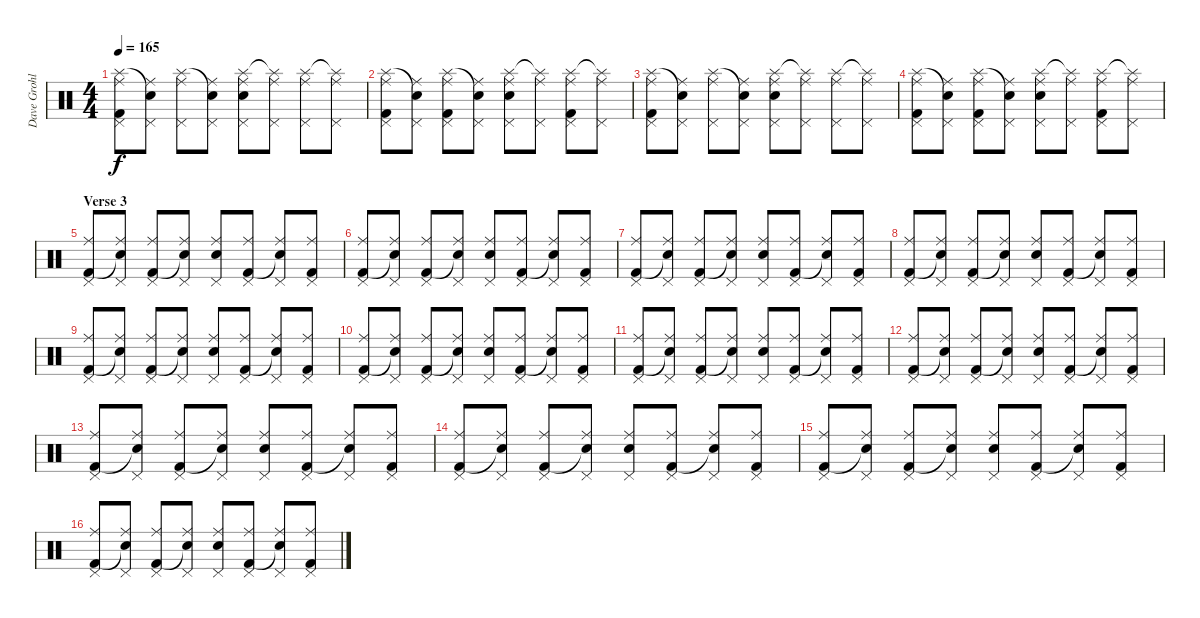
\track ("Dave Grohl" "Dave Grohl") {instrument percussion}
\staff {score}
\articulation defaults
\ts (4 4)
\tempo 165
\clef neutral
\ks c
("Splash (hit)" "Pedal Hi-Hat (hit)" "Ride (middle)" "Kick (hit) 2").8{dy f} ("Snare (hit)"{t} "Pedal Hi-Hat (hit)" "Ride (middle)").8 ("Splash (hit)" "Pedal Hi-Hat (hit)" "Ride (middle)").8 ("Snare (hit)"{t} "Pedal Hi-Hat (hit)" "Ride (middle)").8 ("Splash (hit)" "Pedal Hi-Hat (hit)" "Ride (middle)" "Snare (hit) 2").8 ("Splash (hit)"{t} "Pedal Hi-Hat (hit)" "Ride (middle)").8 ("Splash (hit)" "Pedal Hi-Hat (hit)" "Ride (middle)").8 ("Splash (hit)"{t} "Pedal Hi-Hat (hit)" "Ride (middle)").8 |
("Splash (hit)" "Pedal Hi-Hat (hit)" "Ride (middle)" "Kick (hit) 2").8 ("Snare (hit)"{t} "Pedal Hi-Hat (hit)" "Ride (middle)").8 ("Splash (hit)" "Pedal Hi-Hat (hit)" "Ride (middle)" "Kick (hit) 2").8 ("Snare (hit)"{t} "Pedal Hi-Hat (hit)" "Ride (middle)").8 ("Splash (hit)" "Pedal Hi-Hat (hit)" "Ride (middle)" "Snare (hit) 2").8 ("Splash (hit)"{t} "Pedal Hi-Hat (hit)" "Ride (middle)").8 ("Splash (hit)" "Pedal Hi-Hat (hit)" "Ride (middle)" "Kick (hit) 2").8 ("Splash (hit)"{t} "Pedal Hi-Hat (hit)" "Ride (middle)").8 |
("Splash (hit)" "Pedal Hi-Hat (hit)" "Ride (middle)" "Kick (hit) 2").8 ("Snare (hit)"{t} "Pedal Hi-Hat (hit)" "Ride (middle)").8 ("Splash (hit)" "Pedal Hi-Hat (hit)" "Ride (middle)").8 ("Snare (hit)"{t} "Pedal Hi-Hat (hit)" "Ride (middle)").8 ("Splash (hit)" "Pedal Hi-Hat (hit)" "Ride (middle)" "Snare (hit) 2").8 ("Splash (hit)"{t} "Pedal Hi-Hat (hit)" "Ride (middle)").8 ("Splash (hit)" "Pedal Hi-Hat (hit)" "Ride (middle)").8 ("Splash (hit)"{t} "Pedal Hi-Hat (hit)" "Ride (middle)").8 |
("Splash (hit)" "Pedal Hi-Hat (hit)" "Ride (middle)" "Kick (hit) 2").8 ("Snare (hit)"{t} "Pedal Hi-Hat (hit)" "Ride (middle)").8 ("Splash (hit)" "Pedal Hi-Hat (hit)" "Ride (middle)" "Kick (hit) 2").8 ("Snare (hit)"{t} "Pedal Hi-Hat (hit)" "Ride (middle)").8 ("Splash (hit)" "Pedal Hi-Hat (hit)" "Ride (middle)" "Snare (hit) 2").8 ("Splash (hit)"{t} "Pedal Hi-Hat (hit)" "Ride (middle)").8 ("Splash (hit)" "Pedal Hi-Hat (hit)" "Ride (middle)" "Kick (hit) 2").8 ("Splash (hit)"{t} "Pedal Hi-Hat (hit)" "Ride (middle)").8 |
\section ("" "Verse 3")
("Ride (middle)" "Pedal Hi-Hat (hit)" "Kick (hit) 2").8 ("Ride (middle)" "Pedal Hi-Hat (hit)" "Snare (hit)"{t}).8 ("Ride (middle)" "Pedal Hi-Hat (hit)" "Kick (hit) 2").8 ("Ride (middle)" "Pedal Hi-Hat (hit)" "Snare (hit)"{t}).8 ("Ride (middle)" "Pedal Hi-Hat (hit)" "Snare (hit) 2").8 ("Ride (middle)" "Pedal Hi-Hat (hit)" "Kick (hit) 2").8 ("Ride (middle)" "Pedal Hi-Hat (hit)" "Snare (hit)"{t}).8 ("Ride (middle)" "Pedal Hi-Hat (hit)" "Kick (hit) 2").8 |
("Ride (middle)" "Pedal Hi-Hat (hit)" "Kick (hit) 2").8 ("Ride (middle)" "Pedal Hi-Hat (hit)" "Snare (hit)"{t}).8 ("Ride (middle)" "Pedal Hi-Hat (hit)" "Kick (hit) 2").8 ("Ride (middle)" "Pedal Hi-Hat (hit)" "Snare (hit)"{t}).8 ("Ride (middle)" "Pedal Hi-Hat (hit)" "Snare (hit) 2").8 ("Ride (middle)" "Pedal Hi-Hat (hit)" "Kick (hit) 2").8 ("Ride (middle)" "Pedal Hi-Hat (hit)" "Snare (hit)"{t}).8 ("Ride (middle)" "Pedal Hi-Hat (hit)" "Kick (hit) 2").8 |
("Ride (middle)" "Pedal Hi-Hat (hit)" "Kick (hit) 2").8 ("Ride (middle)" "Pedal Hi-Hat (hit)" "Snare (hit)"{t}).8 ("Ride (middle)" "Pedal Hi-Hat (hit)" "Kick (hit) 2").8 ("Ride (middle)" "Pedal Hi-Hat (hit)" "Snare (hit)"{t}).8 ("Ride (middle)" "Pedal Hi-Hat (hit)" "Snare (hit) 2").8 ("Ride (middle)" "Pedal Hi-Hat (hit)" "Kick (hit) 2").8 ("Ride (middle)" "Pedal Hi-Hat (hit)" "Snare (hit)"{t}).8 ("Ride (middle)" "Pedal Hi-Hat (hit)" "Kick (hit) 2").8 |
("Ride (middle)" "Pedal Hi-Hat (hit)" "Kick (hit) 2").8 ("Ride (middle)" "Pedal Hi-Hat (hit)" "Snare (hit)"{t}).8 ("Ride (middle)" "Pedal Hi-Hat (hit)" "Kick (hit) 2").8 ("Ride (middle)" "Pedal Hi-Hat (hit)" "Snare (hit)"{t}).8 ("Ride (middle)" "Pedal Hi-Hat (hit)" "Snare (hit) 2").8 ("Ride (middle)" "Pedal Hi-Hat (hit)" "Kick (hit) 2").8 ("Ride (middle)" "Pedal Hi-Hat (hit)" "Snare (hit)"{t}).8 ("Ride (middle)" "Pedal Hi-Hat (hit)" "Kick (hit) 2").8 |
("Ride (middle)" "Pedal Hi-Hat (hit)" "Kick (hit) 2").8 ("Ride (middle)" "Pedal Hi-Hat (hit)" "Snare (hit)"{t}).8 ("Ride (middle)" "Pedal Hi-Hat (hit)" "Kick (hit) 2").8 ("Ride (middle)" "Pedal Hi-Hat (hit)" "Snare (hit)"{t}).8 ("Ride (middle)" "Pedal Hi-Hat (hit)" "Snare (hit) 2").8 ("Ride (middle)" "Pedal Hi-Hat (hit)" "Kick (hit) 2").8 ("Ride (middle)" "Pedal Hi-Hat (hit)" "Snare (hit)"{t}).8 ("Ride (middle)" "Pedal Hi-Hat (hit)" "Kick (hit) 2").8 |
("Ride (middle)" "Pedal Hi-Hat (hit)" "Kick (hit) 2").8 ("Ride (middle)" "Pedal Hi-Hat (hit)" "Snare (hit)"{t}).8 ("Ride (middle)" "Pedal Hi-Hat (hit)" "Kick (hit) 2").8 ("Ride (middle)" "Pedal Hi-Hat (hit)" "Snare (hit)"{t}).8 ("Ride (middle)" "Pedal Hi-Hat (hit)" "Snare (hit) 2").8 ("Ride (middle)" "Pedal Hi-Hat (hit)" "Kick (hit) 2").8 ("Ride (middle)" "Pedal Hi-Hat (hit)" "Snare (hit)"{t}).8 ("Ride (middle)" "Pedal Hi-Hat (hit)" "Kick (hit) 2").8 |
("Ride (middle)" "Pedal Hi-Hat (hit)" "Kick (hit) 2").8 ("Ride (middle)" "Pedal Hi-Hat (hit)" "Snare (hit)"{t}).8 ("Ride (middle)" "Pedal Hi-Hat (hit)" "Kick (hit) 2").8 ("Ride (middle)" "Pedal Hi-Hat (hit)" "Snare (hit)"{t}).8 ("Ride (middle)" "Pedal Hi-Hat (hit)" "Snare (hit) 2").8 ("Ride (middle)" "Pedal Hi-Hat (hit)" "Kick (hit) 2").8 ("Ride (middle)" "Pedal Hi-Hat (hit)" "Snare (hit)"{t}).8 ("Ride (middle)" "Pedal Hi-Hat (hit)" "Kick (hit) 2").8 |
("Ride (middle)" "Pedal Hi-Hat (hit)" "Kick (hit) 2").8 ("Ride (middle)" "Pedal Hi-Hat (hit)" "Snare (hit)"{t}).8 ("Ride (middle)" "Pedal Hi-Hat (hit)" "Kick (hit) 2").8 ("Ride (middle)" "Pedal Hi-Hat (hit)" "Snare (hit)"{t}).8 ("Ride (middle)" "Pedal Hi-Hat (hit)" "Snare (hit) 2").8 ("Ride (middle)" "Pedal Hi-Hat (hit)" "Kick (hit) 2").8 ("Ride (middle)" "Pedal Hi-Hat (hit)" "Snare (hit)"{t}).8 ("Ride (middle)" "Pedal Hi-Hat (hit)" "Kick (hit) 2").8 |
("Ride (middle)" "Pedal Hi-Hat (hit)" "Kick (hit) 2").8 ("Ride (middle)" "Pedal Hi-Hat (hit)" "Snare (hit)"{t}).8 ("Ride (middle)" "Pedal Hi-Hat (hit)" "Kick (hit) 2").8 ("Ride (middle)" "Pedal Hi-Hat (hit)" "Snare (hit)"{t}).8 ("Ride (middle)" "Pedal Hi-Hat (hit)" "Snare (hit) 2").8 ("Ride (middle)" "Pedal Hi-Hat (hit)" "Kick (hit) 2").8 ("Ride (middle)" "Pedal Hi-Hat (hit)" "Snare (hit)"{t}).8 ("Ride (middle)" "Pedal Hi-Hat (hit)" "Kick (hit) 2").8 |
("Ride (middle)" "Pedal Hi-Hat (hit)" "Kick (hit) 2").8 ("Ride (middle)" "Pedal Hi-Hat (hit)" "Snare (hit)"{t}).8 ("Ride (middle)" "Pedal Hi-Hat (hit)" "Kick (hit) 2").8 ("Ride (middle)" "Pedal Hi-Hat (hit)" "Snare (hit)"{t}).8 ("Ride (middle)" "Pedal Hi-Hat (hit)" "Snare (hit) 2").8 ("Ride (middle)" "Pedal Hi-Hat (hit)" "Kick (hit) 2").8 ("Ride (middle)" "Pedal Hi-Hat (hit)" "Snare (hit)"{t}).8 ("Ride (middle)" "Pedal Hi-Hat (hit)" "Kick (hit) 2").8 |
("Ride (middle)" "Pedal Hi-Hat (hit)" "Kick (hit) 2").8 ("Ride (middle)" "Pedal Hi-Hat (hit)" "Snare (hit)"{t}).8 ("Ride (middle)" "Pedal Hi-Hat (hit)" "Kick (hit) 2").8 ("Ride (middle)" "Pedal Hi-Hat (hit)" "Snare (hit)"{t}).8 ("Ride (middle)" "Pedal Hi-Hat (hit)" "Snare (hit) 2").8 ("Ride (middle)" "Pedal Hi-Hat (hit)" "Kick (hit) 2").8 ("Ride (middle)" "Pedal Hi-Hat (hit)" "Snare (hit)"{t}).8 ("Ride (middle)" "Pedal Hi-Hat (hit)" "Kick (hit) 2").8 |
("Ride (middle)" "Pedal Hi-Hat (hit)" "Kick (hit) 2").8 ("Ride (middle)" "Pedal Hi-Hat (hit)" "Snare (hit)"{t}).8 ("Ride (middle)" "Pedal Hi-Hat (hit)" "Kick (hit) 2").8 ("Ride (middle)" "Pedal Hi-Hat (hit)" "Snare (hit)"{t}).8 ("Ride (middle)" "Pedal Hi-Hat (hit)" "Snare (hit) 2").8 ("Ride (middle)" "Pedal Hi-Hat (hit)" "Kick (hit) 2").8 ("Ride (middle)" "Pedal Hi-Hat (hit)" "Snare (hit)"{t}).8 ("Ride (middle)" "Pedal Hi-Hat (hit)" "Kick (hit) 2").8
